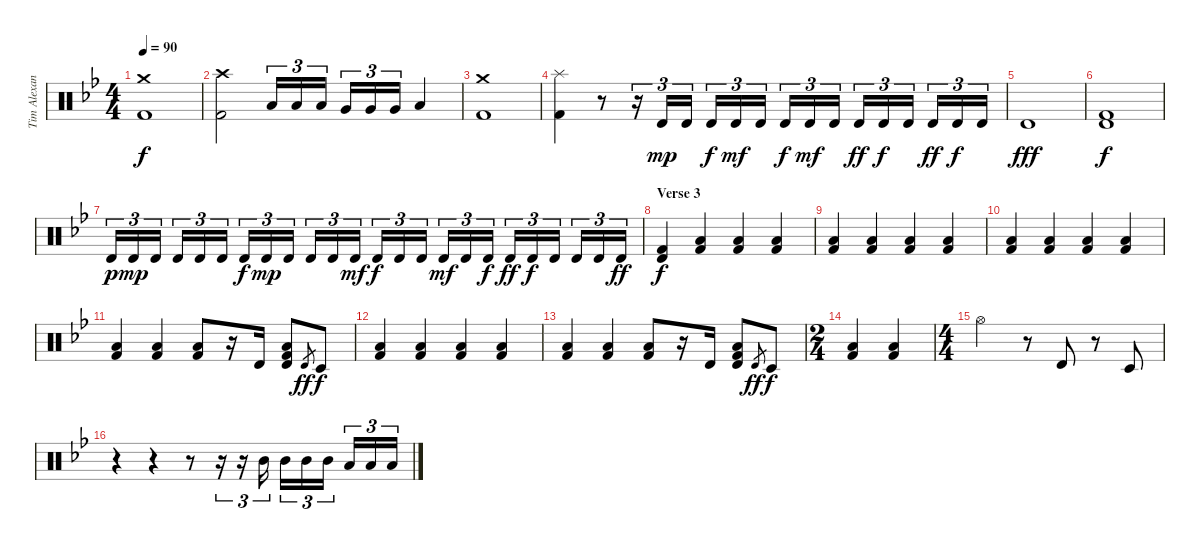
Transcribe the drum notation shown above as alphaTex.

\track ("Tim Alexander - Drums" "Tim Alexan") {instrument percussion}
\staff {score}
\articulation defaults
\ts (4 4)
\tempo 90
\clef neutral
\ks bb
("Crash medium (hit)" "Kick (hit) 2").1{dy f} |
("Crash high (hit)" "Kick (hit) 2").2 "Low Tom (hit)".16{tu (3 2)} "Low Tom (hit)".16{tu (3 2)} "Low Tom (hit)".16{tu (3 2)} "Very Low Tom (hit)".16{tu (3 2)} "Very Low Tom (hit)".16{tu (3 2)} "Very Low Tom (hit)".16{tu (3 2)} "Low Floor Tom (hit)".4 |
("Crash medium (hit)" "Kick (hit) 2").1 |
("Splash (hit)" "Kick (hit) 2").4 r.8 r.16{tu (3 2)} "Timbale high (hit)".16{tu (3 2) dy mp} "Timbale high (hit)".16{tu (3 2)} "Timbale high (hit)".16{tu (3 2) dy f} "Timbale high (hit)".16{tu (3 2) dy mf} "Timbale high (hit)".16{tu (3 2)} "Timbale high (hit)".16{tu (3 2) dy f} "Timbale high (hit)".16{tu (3 2) dy mf} "Timbale high (hit)".16{tu (3 2)} "Timbale high (hit)".16{tu (3 2) dy ff} "Timbale high (hit)".16{tu (3 2) dy f} "Timbale high (hit)".16{tu (3 2)} "Timbale high (hit)".16{tu (3 2) dy ff} "Timbale high (hit)".16{tu (3 2) dy f} "Timbale high (hit)".16{tu (3 2)} |
"Timbale high (hit)".1{dy fff} |
("Timbale high (hit)" "Kick (hit) 2").1{dy f} |
"Timbale high (hit)".16{tu (3 2) dy p} "Timbale high (hit)".16{tu (3 2) dy mp} "Timbale high (hit)".16{tu (3 2)} "Timbale high (hit)".16{tu (3 2)} "Timbale high (hit)".16{tu (3 2)} "Timbale high (hit)".16{tu (3 2)} "Timbale high (hit)".16{tu (3 2) dy f} "Timbale high (hit)".16{tu (3 2) dy mp} "Timbale high (hit)".16{tu (3 2)} "Timbale high (hit)".16{tu (3 2)} "Timbale high (hit)".16{tu (3 2)} "Timbale high (hit)".16{tu (3 2) dy mf} "Timbale high (hit)".16{tu (3 2) dy f} "Timbale high (hit)".16{tu (3 2)} "Timbale high (hit)".16{tu (3 2)} "Timbale high (hit)".16{tu (3 2) dy mf} "Timbale high (hit)".16{tu (3 2)} "Timbale high (hit)".16{tu (3 2) dy f} "Timbale high (hit)".16{tu (3 2) dy ff} "Timbale high (hit)".16{tu (3 2) dy f} "Timbale high (hit)".16{tu (3 2)} "Timbale high (hit)".16{tu (3 2)} "Timbale high (hit)".16{tu (3 2)} "Timbale high (hit)".16{tu (3 2) dy ff} |
\section ("" "Verse 3")
("Timbale high (hit)" "Kick (hit) 2").4{dy f} ("Low Floor Tom (hit)" "Kick (hit) 2").4 ("Low Floor Tom (hit)" "Kick (hit) 2").4 ("Low Floor Tom (hit)" "Kick (hit) 2").4 |
("Low Floor Tom (hit)" "Kick (hit) 2").4 ("Low Floor Tom (hit)" "Kick (hit) 2").4 ("Low Floor Tom (hit)" "Kick (hit) 2").4 ("Low Floor Tom (hit)" "Kick (hit) 2").4 |
("Low Floor Tom (hit)" "Kick (hit) 2").4 ("Low Floor Tom (hit)" "Kick (hit) 2").4 ("Low Floor Tom (hit)" "Kick (hit) 2").4 ("Low Floor Tom (hit)" "Kick (hit) 2").4 |
("Low Floor Tom (hit)" "Kick (hit) 2").4 ("Low Floor Tom (hit)" "Kick (hit) 2").4 ("Low Floor Tom (hit)" "Kick (hit) 2").8 r.16 "Timbale high (hit)".16 ("Low Floor Tom (hit)" "Timbale high (hit)" "Kick (hit) 2").8 "Timbale high (hit)".8{gr dy ff} "Timbale low (hit)".8{dy f} |
("Low Floor Tom (hit)" "Kick (hit) 2").4 ("Low Floor Tom (hit)" "Kick (hit) 2").4 ("Low Floor Tom (hit)" "Kick (hit) 2").4 ("Low Floor Tom (hit)" "Kick (hit) 2").4 |
("Low Floor Tom (hit)" "Kick (hit) 2").4 ("Low Floor Tom (hit)" "Kick (hit) 2").4 ("Low Floor Tom (hit)" "Kick (hit) 2").8 r.16 "Timbale high (hit)".16 ("Low Floor Tom (hit)" "Timbale high (hit)" "Kick (hit) 2").8 "Timbale high (hit)".8{gr dy ff} "Timbale low (hit)".8{dy f} |
\ts (2 4)
("Low Floor Tom (hit)" "Kick (hit) 2").4 ("Low Floor Tom (hit)" "Kick (hit) 2").4 |
\ts (4 4)
"Hi-Hat (open)".2 r.8 "Timbale high (hit)".8 r.8 "Timbale low (hit)".8 |
r.4 r.4 r.8 r.16{tu (3 2)} r.16{tu (3 2)} "Mid Tom (hit)".16{tu (3 2)} "Mid Tom (hit)".16{tu (3 2)} "Mid Tom (hit)".16{tu (3 2)} "Mid Tom (hit)".16{tu (3 2)} "Low Tom (hit)".16{tu (3 2)} "Low Tom (hit)".16{tu (3 2)} "Low Tom (hit)".16{tu (3 2)}
